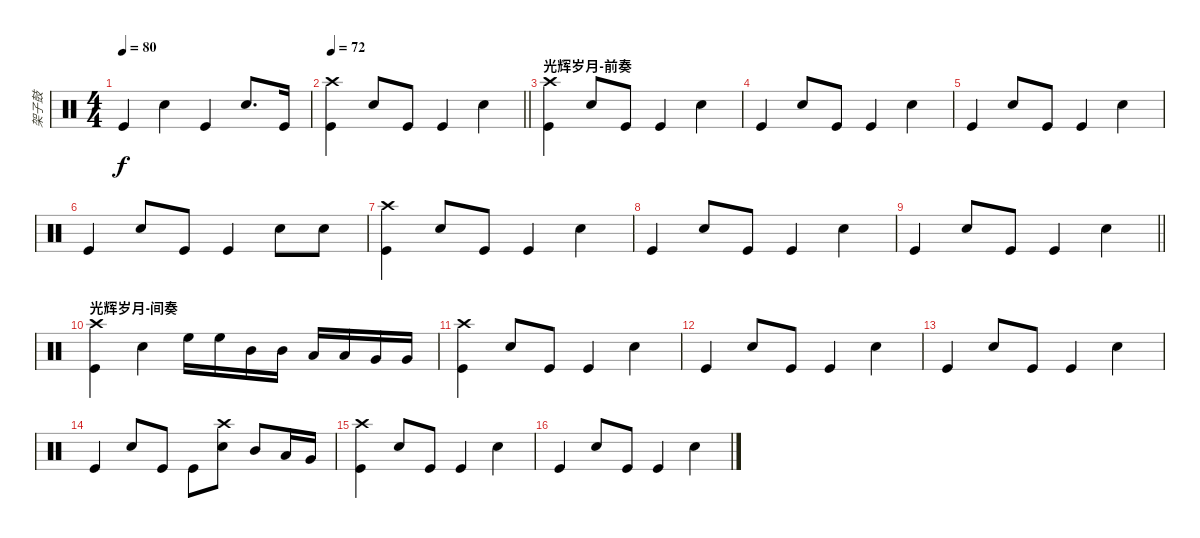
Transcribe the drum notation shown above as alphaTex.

\track ("架子鼓" "架子鼓") {instrument percussion}
\staff {score}
\articulation defaults
\ts (4 4)
\tempo 80
\clef neutral
\ks c "Kick (hit)".4{dy f} "Electric Snare (hit)".4 "Kick (hit)".4 "Electric Snare (hit)".8{d} "Kick (hit)".16
|
\tempo 72
\barLineRight lightlight
("Crash high (hit)" "Kick (hit)").4 "Electric Snare (hit)".8 "Kick (hit)".8 "Kick (hit)".4 "Electric Snare (hit)".4 |
\section ("" "光辉岁月-前奏")
("Crash high (hit)" "Kick (hit)").4 "Electric Snare (hit)".8 "Kick (hit)".8 "Kick (hit)".4 "Electric Snare (hit)".4 |
"Kick (hit)".4 "Electric Snare (hit)".8 "Kick (hit)".8 "Kick (hit)".4 "Electric Snare (hit)".4 |
"Kick (hit)".4 "Electric Snare (hit)".8 "Kick (hit)".8 "Kick (hit)".4 "Electric Snare (hit)".4 |
"Kick (hit)".4 "Electric Snare (hit)".8 "Kick (hit)".8 "Kick (hit)".4 "Electric Snare (hit)".8 "Electric Snare (hit)".8 |
("Crash high (hit)" "Kick (hit)").4 "Electric Snare (hit)".8 "Kick (hit)".8 "Kick (hit)".4 "Electric Snare (hit)".4 |
"Kick (hit)".4 "Electric Snare (hit)".8 "Kick (hit)".8 "Kick (hit)".4 "Electric Snare (hit)".4 |
\barLineRight lightlight "Kick (hit)".4 "Electric Snare (hit)".8 "Kick (hit)".8 "Kick (hit)".4 "Electric Snare (hit)".4
|
\section ("" "光辉岁月-间奏")
("Crash high (hit)" "Kick (hit)").4 "Electric Snare (hit)".4 "High Floor Tom (hit)".16 "High Floor Tom (hit)".16 "Mid Tom (hit)".16 "Mid Tom (hit)".16 "Low Tom (hit)".16 "Low Tom (hit)".16 "Very Low Tom (hit)".16 "Very Low Tom (hit)".16 |
("Crash high (hit)" "Kick (hit)").4 "Electric Snare (hit)".8 "Kick (hit)".8 "Kick (hit)".4 "Electric Snare (hit)".4 |
"Kick (hit)".4 "Electric Snare (hit)".8 "Kick (hit)".8 "Kick (hit)".4 "Electric Snare (hit)".4 |
"Kick (hit)".4 "Electric Snare (hit)".8 "Kick (hit)".8 "Kick (hit)".4 "Electric Snare (hit)".4 |
"Kick (hit)".4 "Electric Snare (hit)".8 "Kick (hit)".8 "Kick (hit)".8 ("Crash high (hit)" "Electric Snare (hit)").8 "Mid Tom (hit)".8 "Low Tom (hit)".16 "Very Low Tom (hit)".16 |
("Crash high (hit)" "Kick (hit)").4 "Electric Snare (hit)".8 "Kick (hit)".8 "Kick (hit)".4 "Electric Snare (hit)".4 |
"Kick (hit)".4 "Electric Snare (hit)".8 "Kick (hit)".8 "Kick (hit)".4 "Electric Snare (hit)".4
